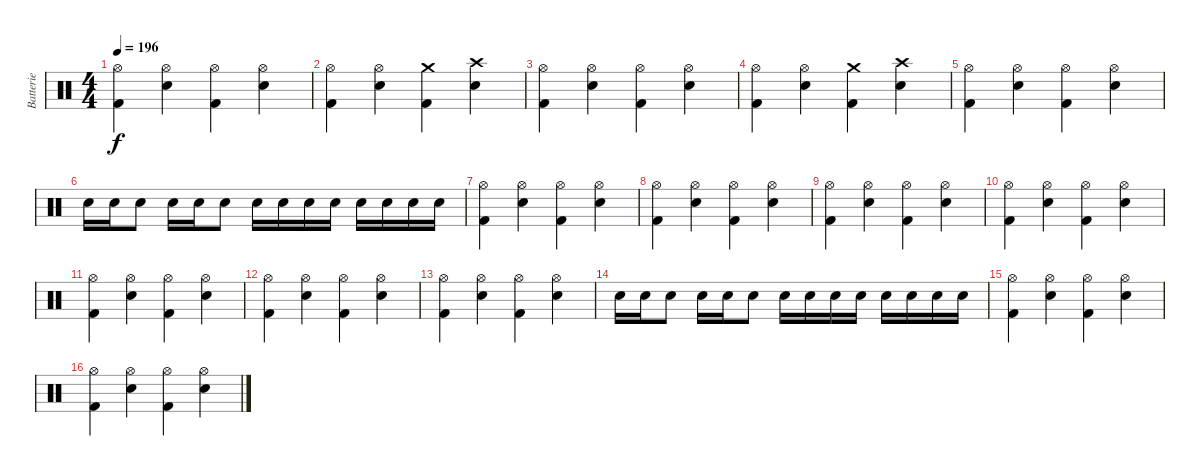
\track ("Batterie" "Batterie") {instrument percussion}
\staff {score}
\articulation defaults
\ts (4 4)
\tempo 196
\clef neutral
\ks c
("Hi-Hat (open)" "Kick (hit) 2").4{dy f} ("Hi-Hat (open)" "Electric Snare (hit)").4 ("Hi-Hat (open)" "Kick (hit) 2").4 ("Hi-Hat (open)" "Electric Snare (hit)").4 |
("Hi-Hat (open)" "Kick (hit) 2").4 ("Hi-Hat (open)" "Electric Snare (hit)").4 ("Crash medium (hit)" "Kick (hit) 2").4 ("Crash high (hit)" "Electric Snare (hit)").4 |
("Hi-Hat (open)" "Kick (hit) 2").4 ("Hi-Hat (open)" "Electric Snare (hit)").4 ("Hi-Hat (open)" "Kick (hit) 2").4 ("Hi-Hat (open)" "Electric Snare (hit)").4 |
("Hi-Hat (open)" "Kick (hit) 2").4 ("Hi-Hat (open)" "Electric Snare (hit)").4 ("Crash medium (hit)" "Kick (hit) 2").4 ("Crash high (hit)" "Electric Snare (hit)").4 |
("Hi-Hat (open)" "Kick (hit) 2").4 ("Hi-Hat (open)" "Electric Snare (hit)").4 ("Hi-Hat (open)" "Kick (hit) 2").4 ("Hi-Hat (open)" "Electric Snare (hit)").4 |
"Electric Snare (hit)".16 "Electric Snare (hit)".16 "Electric Snare (hit)".8 "Electric Snare (hit)".16 "Electric Snare (hit)".16 "Electric Snare (hit)".8 "Electric Snare (hit)".16 "Electric Snare (hit)".16 "Electric Snare (hit)".16 "Electric Snare (hit)".16 "Electric Snare (hit)".16 "Electric Snare (hit)".16 "Electric Snare (hit)".16 "Electric Snare (hit)".16 |
("Hi-Hat (open)" "Kick (hit) 2").4 ("Hi-Hat (open)" "Electric Snare (hit)").4 ("Hi-Hat (open)" "Kick (hit) 2").4 ("Hi-Hat (open)" "Electric Snare (hit)").4 |
("Hi-Hat (open)" "Kick (hit) 2").4 ("Hi-Hat (open)" "Electric Snare (hit)").4 ("Hi-Hat (open)" "Kick (hit) 2").4 ("Hi-Hat (open)" "Electric Snare (hit)").4 |
("Hi-Hat (open)" "Kick (hit) 2").4 ("Hi-Hat (open)" "Electric Snare (hit)").4 ("Hi-Hat (open)" "Kick (hit) 2").4 ("Hi-Hat (open)" "Electric Snare (hit)").4 |
("Hi-Hat (open)" "Kick (hit) 2").4 ("Hi-Hat (open)" "Electric Snare (hit)").4 ("Hi-Hat (open)" "Kick (hit) 2").4 ("Hi-Hat (open)" "Electric Snare (hit)").4 |
("Hi-Hat (open)" "Kick (hit) 2").4 ("Hi-Hat (open)" "Electric Snare (hit)").4 ("Hi-Hat (open)" "Kick (hit) 2").4 ("Hi-Hat (open)" "Electric Snare (hit)").4 |
("Hi-Hat (open)" "Kick (hit) 2").4 ("Hi-Hat (open)" "Electric Snare (hit)").4 ("Hi-Hat (open)" "Kick (hit) 2").4 ("Hi-Hat (open)" "Electric Snare (hit)").4 |
("Hi-Hat (open)" "Kick (hit) 2").4 ("Hi-Hat (open)" "Electric Snare (hit)").4 ("Hi-Hat (open)" "Kick (hit) 2").4 ("Hi-Hat (open)" "Electric Snare (hit)").4 |
"Electric Snare (hit)".16 "Electric Snare (hit)".16 "Electric Snare (hit)".8 "Electric Snare (hit)".16 "Electric Snare (hit)".16 "Electric Snare (hit)".8 "Electric Snare (hit)".16 "Electric Snare (hit)".16 "Electric Snare (hit)".16 "Electric Snare (hit)".16 "Electric Snare (hit)".16 "Electric Snare (hit)".16 "Electric Snare (hit)".16 "Electric Snare (hit)".16 |
("Hi-Hat (open)" "Kick (hit) 2").4 ("Hi-Hat (open)" "Electric Snare (hit)").4 ("Hi-Hat (open)" "Kick (hit) 2").4 ("Hi-Hat (open)" "Electric Snare (hit)").4 |
("Hi-Hat (open)" "Kick (hit) 2").4 ("Hi-Hat (open)" "Electric Snare (hit)").4 ("Hi-Hat (open)" "Kick (hit) 2").4 ("Hi-Hat (open)" "Electric Snare (hit)").4
